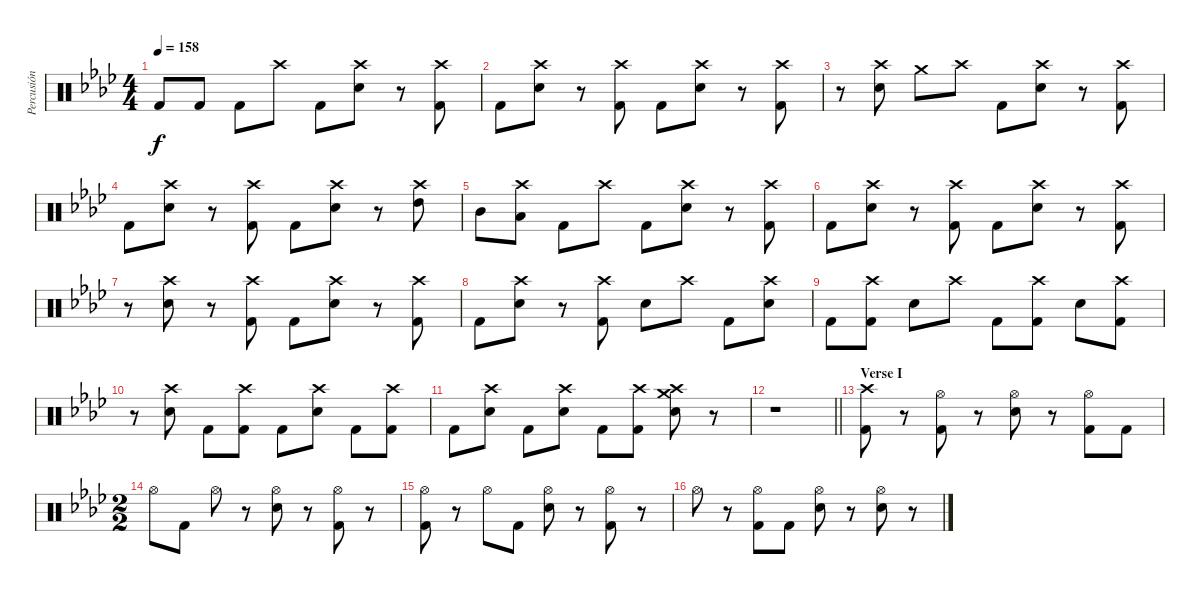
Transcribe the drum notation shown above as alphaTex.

\track ("Percusión" "Percusión") {instrument percussion}
\staff {score}
\articulation defaults
\ts (4 4)
\tempo 158
\clef neutral
\ks ab "Kick (hit) 2".8{dy f} "Kick (hit) 2".8 "Kick (hit) 2".8 "Crash high (hit)".8 "Kick (hit) 2".8
("Crash high (hit)" "Snare (hit) 2").8 r.8 ("Crash high (hit)" "Kick (hit) 2").8 |
"Kick (hit) 2".8 ("Crash high (hit)" "Snare (hit) 2").8 r.8 ("Crash high (hit)" "Kick (hit) 2").8 "Kick (hit) 2".8 ("Crash high (hit)" "Snare (hit) 2").8 r.8 ("Crash high (hit)" "Kick (hit) 2").8 |
r.8 ("Crash high (hit)" "Snare (hit) 2").8 "Crash medium (hit)".8 "Crash high (hit)".8 "Kick (hit) 2".8 ("Crash high (hit)" "Snare (hit) 2").8 r.8 ("Crash high (hit)" "Kick (hit) 2").8 |
"Kick (hit) 2".8 ("Crash high (hit)" "Snare (hit) 2").8 r.8 ("Crash high (hit)" "Kick (hit) 2").8 "Kick (hit) 2".8 ("Crash high (hit)" "Snare (hit) 2").8 r.8 ("Crash high (hit)" "High Tom (hit)").8 |
"Mid Tom (hit)".8 ("Crash high (hit)" "Low Tom (hit)").8 "Kick (hit) 2".8 "Crash high (hit)".8 "Kick (hit) 2".8 ("Crash high (hit)" "Snare (hit) 2").8 r.8 ("Crash high (hit)" "Kick (hit) 2").8 |
"Kick (hit) 2".8 ("Crash high (hit)" "Snare (hit) 2").8 r.8 ("Crash high (hit)" "Kick (hit) 2").8 "Kick (hit) 2".8 ("Crash high (hit)" "Snare (hit) 2").8 r.8 ("Crash high (hit)" "Kick (hit) 2").8 |
r.8 ("Crash high (hit)" "Snare (hit) 2").8 r.8 ("Crash high (hit)" "Kick (hit) 2").8 "Kick (hit) 2".8 ("Crash high (hit)" "Snare (hit) 2").8 r.8 ("Crash high (hit)" "Kick (hit) 2").8 |
"Kick (hit) 2".8 ("Crash high (hit)" "Snare (hit) 2").8 r.8 ("Crash high (hit)" "Kick (hit) 2").8 "Snare (hit) 2".8 "Crash high (hit)".8 "Kick (hit) 2".8 ("Crash high (hit)" "Snare (hit) 2").8 |
"Kick (hit) 2".8 ("Crash high (hit)" "Kick (hit) 2").8 "Snare (hit) 2".8 "Crash high (hit)".8 "Kick (hit) 2".8 ("Crash high (hit)" "Kick (hit) 2").8 "Snare (hit) 2".8 ("Crash high (hit)" "Kick (hit) 2").8 |
r.8 ("Crash high (hit)" "Snare (hit) 2").8 "Kick (hit) 2".8 ("Crash high (hit)" "Kick (hit) 2").8 "Kick (hit) 2".8 ("Crash high (hit)" "Snare (hit) 2").8 "Kick (hit) 2".8 ("Crash high (hit)" "Kick (hit) 2").8 |
"Kick (hit) 2".8 ("Crash high (hit)" "Snare (hit) 2").8 "Kick (hit) 2".8 ("Crash high (hit)" "Snare (hit) 2").8 "Kick (hit) 2".8 ("Crash high (hit)" "Kick (hit) 2").8 ("Crash medium (hit)" "Snare (hit) 2" "Crash high (hit)").8 r.8 |
\barLineRight lightlight
r.1 |
\section ("" "Verse I")
("Crash high (hit)" "Kick (hit) 2").8 r.8 ("Hi-Hat (open)" "Kick (hit) 2").8 r.8 ("Hi-Hat (open)" "Snare (hit) 2").8 r.8 ("Hi-Hat (open)" "Kick (hit) 2").8 "Kick (hit) 2".8 |
\ts (2 2)
"Hi-Hat (open)".8 "Kick (hit) 2".8 "Hi-Hat (open)".8 r.8 ("Hi-Hat (open)" "Snare (hit) 2").8 r.8 ("Hi-Hat (open)" "Kick (hit) 2").8 r.8 |
("Hi-Hat (open)" "Kick (hit) 2").8 r.8 "Hi-Hat (open)".8 "Kick (hit) 2".8 ("Hi-Hat (open)" "Snare (hit) 2").8 r.8 ("Hi-Hat (open)" "Kick (hit) 2").8 r.8 |
"Hi-Hat (open)".8 r.8 ("Hi-Hat (open)" "Kick (hit) 2").8 "Kick (hit) 2".8 ("Hi-Hat (open)" "Snare (hit) 2").8 r.8 ("Hi-Hat (open)" "Snare (hit) 2").8 r.8
